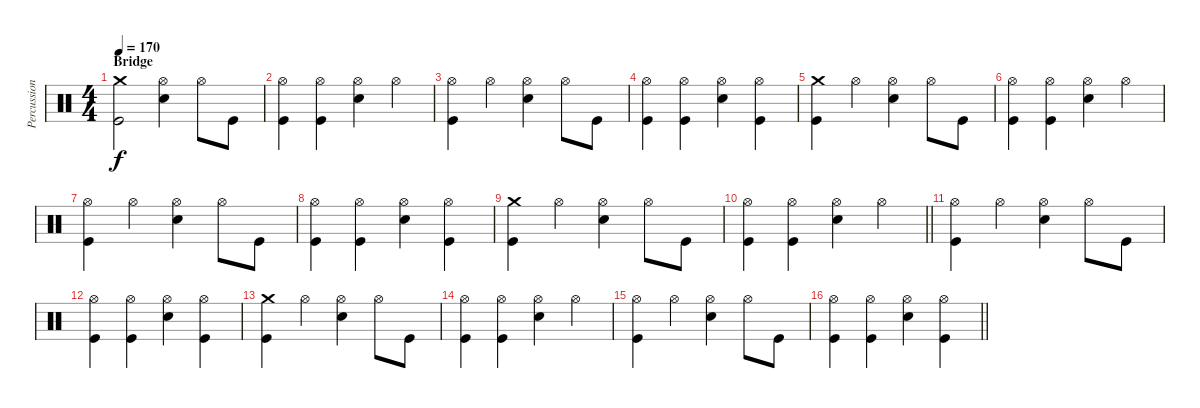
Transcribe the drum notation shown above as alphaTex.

\track ("Percussion" "Percussion") {instrument percussion}
\staff {score}
\articulation defaults
\ts (4 4)
\section ("" "Bridge")
\tempo 170
\clef neutral
\ks c
("Crash medium (hit)" "Kick (hit)").2{dy f} ("Hi-Hat (open)" "Electric Snare (hit)").4 "Hi-Hat (open)".8 "Kick (hit)".8 |
("Hi-Hat (open)" "Kick (hit)").4 ("Hi-Hat (open)" "Kick (hit)").4 ("Hi-Hat (open)" "Electric Snare (hit)").4 "Hi-Hat (open)".4 |
("Hi-Hat (open)" "Kick (hit)").4 "Hi-Hat (open)".4 ("Hi-Hat (open)" "Electric Snare (hit)").4 "Hi-Hat (open)".8 "Kick (hit)".8 |
("Hi-Hat (open)" "Kick (hit)").4 ("Hi-Hat (open)" "Kick (hit)").4 ("Hi-Hat (open)" "Electric Snare (hit)").4 ("Hi-Hat (open)" "Kick (hit)").4 |
("Crash medium (hit)" "Kick (hit)").4 "Hi-Hat (open)".4 ("Hi-Hat (open)" "Electric Snare (hit)").4 "Hi-Hat (open)".8 "Kick (hit)".8 |
("Hi-Hat (open)" "Kick (hit)").4 ("Hi-Hat (open)" "Kick (hit)").4 ("Hi-Hat (open)" "Electric Snare (hit)").4 "Hi-Hat (open)".4 |
("Hi-Hat (open)" "Kick (hit)").4 "Hi-Hat (open)".4 ("Hi-Hat (open)" "Electric Snare (hit)").4 "Hi-Hat (open)".8 "Kick (hit)".8 |
("Hi-Hat (open)" "Kick (hit)").4 ("Hi-Hat (open)" "Kick (hit)").4 ("Hi-Hat (open)" "Electric Snare (hit)").4 ("Hi-Hat (open)" "Kick (hit)").4 |
("Crash medium (hit)" "Kick (hit)").4 "Hi-Hat (open)".4 ("Hi-Hat (open)" "Electric Snare (hit)").4 "Hi-Hat (open)".8 "Kick (hit)".8 |
\barLineRight lightlight
("Hi-Hat (open)" "Kick (hit)").4 ("Hi-Hat (open)" "Kick (hit)").4 ("Hi-Hat (open)" "Electric Snare (hit)").4 "Hi-Hat (open)".4 |
("Hi-Hat (open)" "Kick (hit)").4 "Hi-Hat (open)".4 ("Hi-Hat (open)" "Electric Snare (hit)").4 "Hi-Hat (open)".8 "Kick (hit)".8 |
("Hi-Hat (open)" "Kick (hit)").4 ("Hi-Hat (open)" "Kick (hit)").4 ("Hi-Hat (open)" "Electric Snare (hit)").4 ("Hi-Hat (open)" "Kick (hit)").4 |
("Crash medium (hit)" "Kick (hit)").4 "Hi-Hat (open)".4 ("Hi-Hat (open)" "Electric Snare (hit)").4 "Hi-Hat (open)".8 "Kick (hit)".8 |
("Hi-Hat (open)" "Kick (hit)").4 ("Hi-Hat (open)" "Kick (hit)").4 ("Hi-Hat (open)" "Electric Snare (hit)").4 "Hi-Hat (open)".4 |
("Hi-Hat (open)" "Kick (hit)").4 "Hi-Hat (open)".4 ("Hi-Hat (open)" "Electric Snare (hit)").4 "Hi-Hat (open)".8 "Kick (hit)".8 |
\barLineRight lightlight
("Hi-Hat (open)" "Kick (hit)").4 ("Hi-Hat (open)" "Kick (hit)").4 ("Hi-Hat (open)" "Electric Snare (hit)").4 ("Hi-Hat (open)" "Kick (hit)").4
